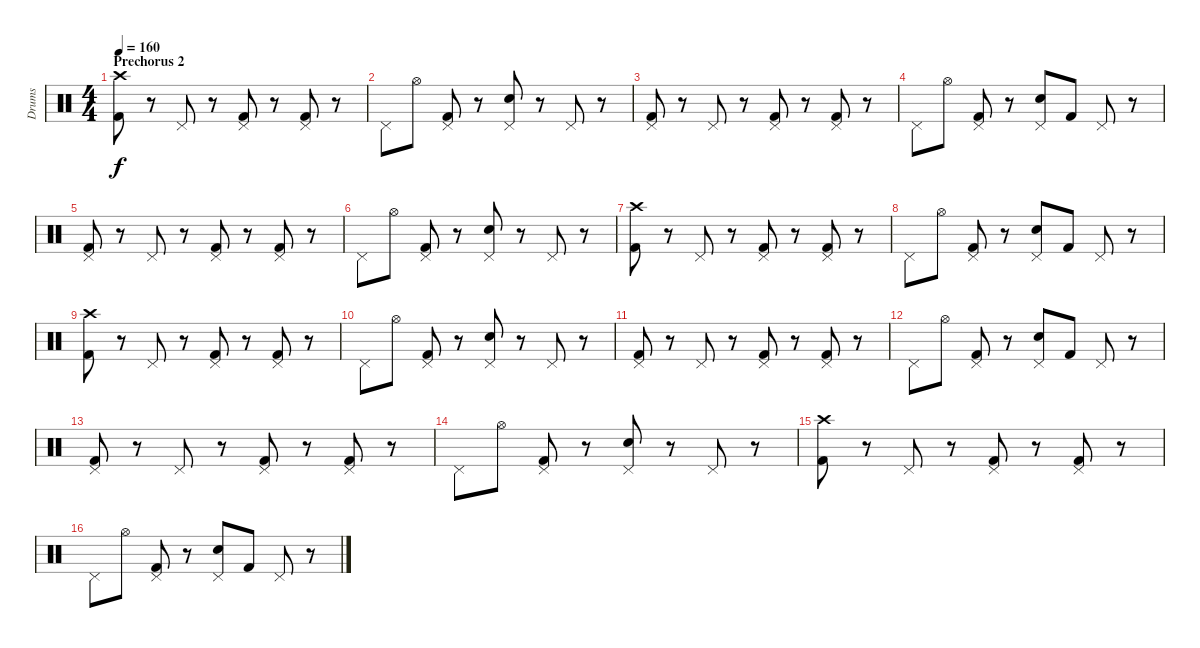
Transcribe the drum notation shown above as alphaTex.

\track ("Drums" "Drums") {instrument percussion}
\staff {score}
\articulation defaults
\ts (4 4)
\section ("" "Prechorus 2")
\tempo 160
\clef neutral
\ks c
("Crash high (hit)" "Kick (hit) 2").8{dy f} r.8 "Pedal Hi-Hat (hit)".8 r.8 ("Pedal Hi-Hat (hit)" "Kick (hit) 2").8 r.8 ("Pedal Hi-Hat (hit)" "Kick (hit) 2").8 r.8 |
"Pedal Hi-Hat (hit)".8 "Hi-Hat (open)".8 ("Pedal Hi-Hat (hit)" "Kick (hit) 2").8 r.8 ("Pedal Hi-Hat (hit)" "Electric Snare (hit)").8 r.8 "Pedal Hi-Hat (hit)".8 r.8 |
("Pedal Hi-Hat (hit)" "Kick (hit) 2").8 r.8 "Pedal Hi-Hat (hit)".8 r.8 ("Pedal Hi-Hat (hit)" "Kick (hit) 2").8 r.8 ("Pedal Hi-Hat (hit)" "Kick (hit) 2").8 r.8 |
"Pedal Hi-Hat (hit)".8 "Hi-Hat (open)".8 ("Pedal Hi-Hat (hit)" "Kick (hit) 2").8 r.8 ("Pedal Hi-Hat (hit)" "Electric Snare (hit)").8 "Kick (hit) 2".8 "Pedal Hi-Hat (hit)".8 r.8 |
("Pedal Hi-Hat (hit)" "Kick (hit) 2").8 r.8 "Pedal Hi-Hat (hit)".8 r.8 ("Pedal Hi-Hat (hit)" "Kick (hit) 2").8 r.8 ("Pedal Hi-Hat (hit)" "Kick (hit) 2").8 r.8 |
"Pedal Hi-Hat (hit)".8 "Hi-Hat (open)".8 ("Pedal Hi-Hat (hit)" "Kick (hit) 2").8 r.8 ("Pedal Hi-Hat (hit)" "Electric Snare (hit)").8 r.8 "Pedal Hi-Hat (hit)".8 r.8 |
("Crash high (hit)" "Kick (hit) 2").8 r.8 "Pedal Hi-Hat (hit)".8 r.8 ("Pedal Hi-Hat (hit)" "Kick (hit) 2").8 r.8 ("Pedal Hi-Hat (hit)" "Kick (hit) 2").8 r.8 |
"Pedal Hi-Hat (hit)".8 "Hi-Hat (open)".8 ("Pedal Hi-Hat (hit)" "Kick (hit) 2").8 r.8 ("Pedal Hi-Hat (hit)" "Electric Snare (hit)").8 "Kick (hit) 2".8 "Pedal Hi-Hat (hit)".8 r.8 |
("Crash high (hit)" "Kick (hit) 2").8 r.8 "Pedal Hi-Hat (hit)".8 r.8 ("Pedal Hi-Hat (hit)" "Kick (hit) 2").8 r.8 ("Pedal Hi-Hat (hit)" "Kick (hit) 2").8 r.8 |
"Pedal Hi-Hat (hit)".8 "Hi-Hat (open)".8 ("Pedal Hi-Hat (hit)" "Kick (hit) 2").8 r.8 ("Pedal Hi-Hat (hit)" "Electric Snare (hit)").8 r.8 "Pedal Hi-Hat (hit)".8 r.8 |
("Pedal Hi-Hat (hit)" "Kick (hit) 2").8 r.8 "Pedal Hi-Hat (hit)".8 r.8 ("Pedal Hi-Hat (hit)" "Kick (hit) 2").8 r.8 ("Pedal Hi-Hat (hit)" "Kick (hit) 2").8 r.8 |
"Pedal Hi-Hat (hit)".8 "Hi-Hat (open)".8 ("Pedal Hi-Hat (hit)" "Kick (hit) 2").8 r.8 ("Pedal Hi-Hat (hit)" "Electric Snare (hit)").8 "Kick (hit) 2".8 "Pedal Hi-Hat (hit)".8 r.8 |
("Pedal Hi-Hat (hit)" "Kick (hit) 2").8 r.8 "Pedal Hi-Hat (hit)".8 r.8 ("Pedal Hi-Hat (hit)" "Kick (hit) 2").8 r.8 ("Pedal Hi-Hat (hit)" "Kick (hit) 2").8 r.8 |
"Pedal Hi-Hat (hit)".8 "Hi-Hat (open)".8 ("Pedal Hi-Hat (hit)" "Kick (hit) 2").8 r.8 ("Pedal Hi-Hat (hit)" "Electric Snare (hit)").8 r.8 "Pedal Hi-Hat (hit)".8 r.8 |
("Crash high (hit)" "Kick (hit) 2").8 r.8 "Pedal Hi-Hat (hit)".8 r.8 ("Pedal Hi-Hat (hit)" "Kick (hit) 2").8 r.8 ("Pedal Hi-Hat (hit)" "Kick (hit) 2").8 r.8 |
"Pedal Hi-Hat (hit)".8 "Hi-Hat (open)".8 ("Pedal Hi-Hat (hit)" "Kick (hit) 2").8 r.8 ("Pedal Hi-Hat (hit)" "Electric Snare (hit)").8 "Kick (hit) 2".8 "Pedal Hi-Hat (hit)".8 r.8
